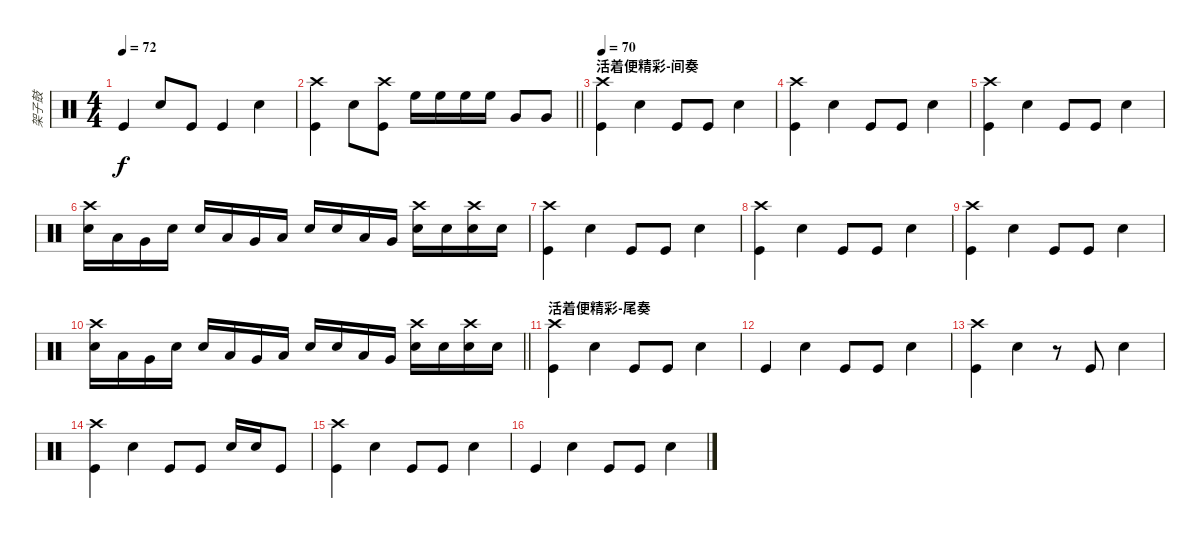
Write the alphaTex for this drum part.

\track ("架子鼓" "架子鼓") {instrument percussion}
\staff {score}
\articulation defaults
\ts (4 4)
\tempo 72
\clef neutral
\ks c "Kick (hit)".4{dy f} "Electric Snare (hit)".8 "Kick (hit)".8 "Kick (hit)".4 "Electric Snare (hit)".4
|
\barLineRight lightlight
("Crash high (hit)" "Kick (hit)").4 "Electric Snare (hit)".8 ("Crash high (hit)" "Kick (hit)").8 "High Floor Tom (hit)".16 "High Floor Tom (hit)".16 "High Floor Tom (hit)".16 "High Floor Tom (hit)".16 "Very Low Tom (hit)".8 "Very Low Tom (hit)".8 |
\section ("" "活着便精彩-间奏")
\tempo 70
("Crash high (hit)" "Kick (hit)").4 "Electric Snare (hit)".4 "Kick (hit)".8 "Kick (hit)".8 "Electric Snare (hit)".4 |
("Crash high (hit)" "Kick (hit)").4 "Electric Snare (hit)".4 "Kick (hit)".8 "Kick (hit)".8 "Electric Snare (hit)".4 |
("Crash high (hit)" "Kick (hit)").4 "Electric Snare (hit)".4 "Kick (hit)".8 "Kick (hit)".8 "Electric Snare (hit)".4 |
("Crash high (hit)" "Electric Snare (hit)").16 "Low Tom (hit)".16 "Very Low Tom (hit)".16 "Electric Snare (hit)".16 "Electric Snare (hit)".16 "Low Tom (hit)".16 "Very Low Tom (hit)".16 "Low Floor Tom (hit)".16 "Electric Snare (hit)".16 "Electric Snare (hit)".16 "Low Tom (hit)".16 "Very Low Tom (hit)".16 ("Crash high (hit)" "Electric Snare (hit)").16 "Electric Snare (hit)".16 ("Crash high (hit)" "Electric Snare (hit)").16 "Electric Snare (hit)".16 |
("Crash high (hit)" "Kick (hit)").4 "Electric Snare (hit)".4 "Kick (hit)".8 "Kick (hit)".8 "Electric Snare (hit)".4 |
("Crash high (hit)" "Kick (hit)").4 "Electric Snare (hit)".4 "Kick (hit)".8 "Kick (hit)".8 "Electric Snare (hit)".4 |
("Crash high (hit)" "Kick (hit)").4 "Electric Snare (hit)".4 "Kick (hit)".8 "Kick (hit)".8 "Electric Snare (hit)".4 |
\barLineRight lightlight
("Crash high (hit)" "Electric Snare (hit)").16 "Low Tom (hit)".16 "Very Low Tom (hit)".16 "Electric Snare (hit)".16 "Electric Snare (hit)".16 "Low Tom (hit)".16 "Very Low Tom (hit)".16 "Low Floor Tom (hit)".16 "Electric Snare (hit)".16 "Electric Snare (hit)".16 "Low Tom (hit)".16 "Very Low Tom (hit)".16 ("Crash high (hit)" "Electric Snare (hit)").16 "Electric Snare (hit)".16 ("Crash high (hit)" "Electric Snare (hit)").16 "Electric Snare (hit)".16 |
\section ("" "活着便精彩-尾奏")
("Crash high (hit)" "Kick (hit)").4 "Electric Snare (hit)".4 "Kick (hit)".8 "Kick (hit)".8 "Electric Snare (hit)".4 |
"Kick (hit)".4 "Electric Snare (hit)".4 "Kick (hit)".8 "Kick (hit)".8 "Electric Snare (hit)".4 |
("Crash high (hit)" "Kick (hit)").4 "Electric Snare (hit)".4 r.8 "Kick (hit)".8 "Electric Snare (hit)".4 |
("Crash high (hit)" "Kick (hit)").4 "Electric Snare (hit)".4 "Kick (hit)".8 "Kick (hit)".8 "Electric Snare (hit)".16 "Electric Snare (hit)".16 "Kick (hit)".8 |
("Crash high (hit)" "Kick (hit)").4 "Electric Snare (hit)".4 "Kick (hit)".8 "Kick (hit)".8 "Electric Snare (hit)".4 |
"Kick (hit)".4 "Electric Snare (hit)".4 "Kick (hit)".8 "Kick (hit)".8 "Electric Snare (hit)".4
